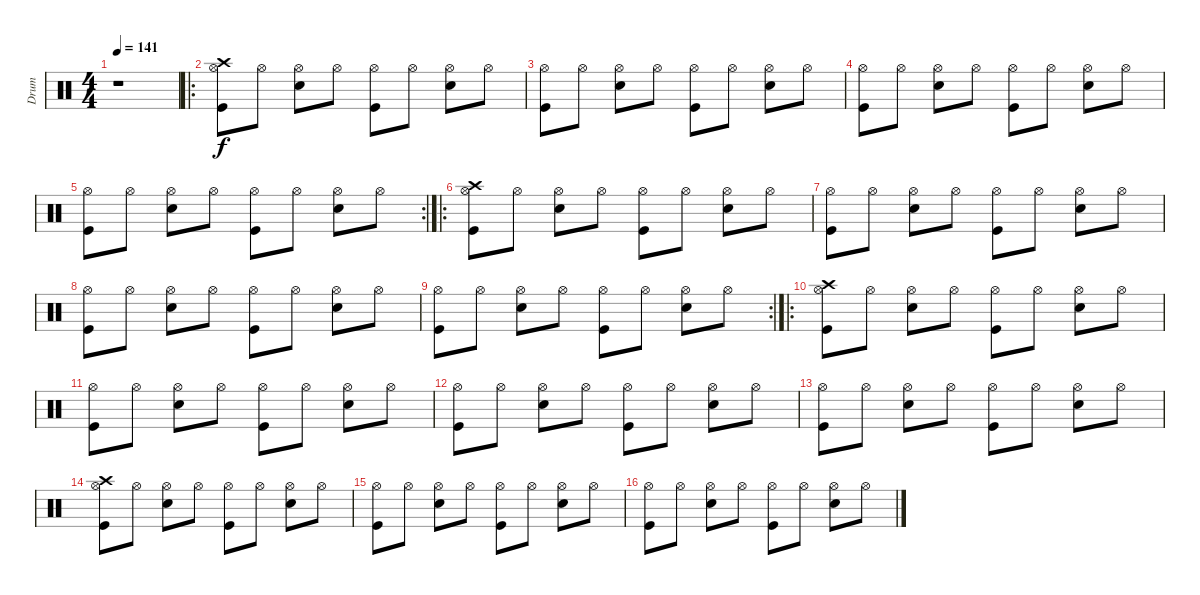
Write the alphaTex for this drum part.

\track ("Drum" "Drum") {instrument percussion}
\staff {score}
\articulation defaults
\ts (4 4)
\tempo 141
\clef neutral
\ks c
r.1{dy f} |
\ro
("Hi-Hat (open)" "Crash high (hit)" "Kick (hit)").8 "Hi-Hat (open)".8 ("Hi-Hat (open)" "Electric Snare (hit)").8 "Hi-Hat (open)".8 ("Hi-Hat (open)" "Kick (hit)").8 "Hi-Hat (open)".8 ("Hi-Hat (open)" "Electric Snare (hit)").8 "Hi-Hat (open)".8 |
("Hi-Hat (open)" "Kick (hit)").8 "Hi-Hat (open)".8 ("Hi-Hat (open)" "Electric Snare (hit)").8 "Hi-Hat (open)".8 ("Hi-Hat (open)" "Kick (hit)").8 "Hi-Hat (open)".8 ("Hi-Hat (open)" "Electric Snare (hit)").8 "Hi-Hat (open)".8 |
("Hi-Hat (open)" "Kick (hit)").8 "Hi-Hat (open)".8 ("Hi-Hat (open)" "Electric Snare (hit)").8 "Hi-Hat (open)".8 ("Hi-Hat (open)" "Kick (hit)").8 "Hi-Hat (open)".8 ("Hi-Hat (open)" "Electric Snare (hit)").8 "Hi-Hat (open)".8 |
\rc 2
("Hi-Hat (open)" "Kick (hit)").8 "Hi-Hat (open)".8 ("Hi-Hat (open)" "Electric Snare (hit)").8 "Hi-Hat (open)".8 ("Hi-Hat (open)" "Kick (hit)").8 "Hi-Hat (open)".8 ("Hi-Hat (open)" "Electric Snare (hit)").8 "Hi-Hat (open)".8 |
\ro
("Hi-Hat (open)" "Crash high (hit)" "Kick (hit)").8 "Hi-Hat (open)".8 ("Hi-Hat (open)" "Electric Snare (hit)").8 "Hi-Hat (open)".8 ("Hi-Hat (open)" "Kick (hit)").8 "Hi-Hat (open)".8 ("Hi-Hat (open)" "Electric Snare (hit)").8 "Hi-Hat (open)".8 |
("Hi-Hat (open)" "Kick (hit)").8 "Hi-Hat (open)".8 ("Hi-Hat (open)" "Electric Snare (hit)").8 "Hi-Hat (open)".8 ("Hi-Hat (open)" "Kick (hit)").8 "Hi-Hat (open)".8 ("Hi-Hat (open)" "Electric Snare (hit)").8 "Hi-Hat (open)".8 |
("Hi-Hat (open)" "Kick (hit)").8 "Hi-Hat (open)".8 ("Hi-Hat (open)" "Electric Snare (hit)").8 "Hi-Hat (open)".8 ("Hi-Hat (open)" "Kick (hit)").8 "Hi-Hat (open)".8 ("Hi-Hat (open)" "Electric Snare (hit)").8 "Hi-Hat (open)".8 |
\rc 2
("Hi-Hat (open)" "Kick (hit)").8 "Hi-Hat (open)".8 ("Hi-Hat (open)" "Electric Snare (hit)").8 "Hi-Hat (open)".8 ("Hi-Hat (open)" "Kick (hit)").8 "Hi-Hat (open)".8 ("Hi-Hat (open)" "Electric Snare (hit)").8 "Hi-Hat (open)".8 |
\ro
("Hi-Hat (open)" "Crash high (hit)" "Kick (hit)").8 "Hi-Hat (open)".8 ("Hi-Hat (open)" "Electric Snare (hit)").8 "Hi-Hat (open)".8 ("Hi-Hat (open)" "Kick (hit)").8 "Hi-Hat (open)".8 ("Hi-Hat (open)" "Electric Snare (hit)").8 "Hi-Hat (open)".8 |
("Hi-Hat (open)" "Kick (hit)").8 "Hi-Hat (open)".8 ("Hi-Hat (open)" "Electric Snare (hit)").8 "Hi-Hat (open)".8 ("Hi-Hat (open)" "Kick (hit)").8 "Hi-Hat (open)".8 ("Hi-Hat (open)" "Electric Snare (hit)").8 "Hi-Hat (open)".8 |
("Hi-Hat (open)" "Kick (hit)").8 "Hi-Hat (open)".8 ("Hi-Hat (open)" "Electric Snare (hit)").8 "Hi-Hat (open)".8 ("Hi-Hat (open)" "Kick (hit)").8 "Hi-Hat (open)".8 ("Hi-Hat (open)" "Electric Snare (hit)").8 "Hi-Hat (open)".8 |
("Hi-Hat (open)" "Kick (hit)").8 "Hi-Hat (open)".8 ("Hi-Hat (open)" "Electric Snare (hit)").8 "Hi-Hat (open)".8 ("Hi-Hat (open)" "Kick (hit)").8 "Hi-Hat (open)".8 ("Hi-Hat (open)" "Electric Snare (hit)").8 "Hi-Hat (open)".8 |
("Hi-Hat (open)" "Crash high (hit)" "Kick (hit)").8 "Hi-Hat (open)".8 ("Hi-Hat (open)" "Electric Snare (hit)").8 "Hi-Hat (open)".8 ("Hi-Hat (open)" "Kick (hit)").8 "Hi-Hat (open)".8 ("Hi-Hat (open)" "Electric Snare (hit)").8 "Hi-Hat (open)".8 |
("Hi-Hat (open)" "Kick (hit)").8 "Hi-Hat (open)".8 ("Hi-Hat (open)" "Electric Snare (hit)").8 "Hi-Hat (open)".8 ("Hi-Hat (open)" "Kick (hit)").8 "Hi-Hat (open)".8 ("Hi-Hat (open)" "Electric Snare (hit)").8 "Hi-Hat (open)".8 |
("Hi-Hat (open)" "Kick (hit)").8 "Hi-Hat (open)".8 ("Hi-Hat (open)" "Electric Snare (hit)").8 "Hi-Hat (open)".8 ("Hi-Hat (open)" "Kick (hit)").8 "Hi-Hat (open)".8 ("Hi-Hat (open)" "Electric Snare (hit)").8 "Hi-Hat (open)".8
